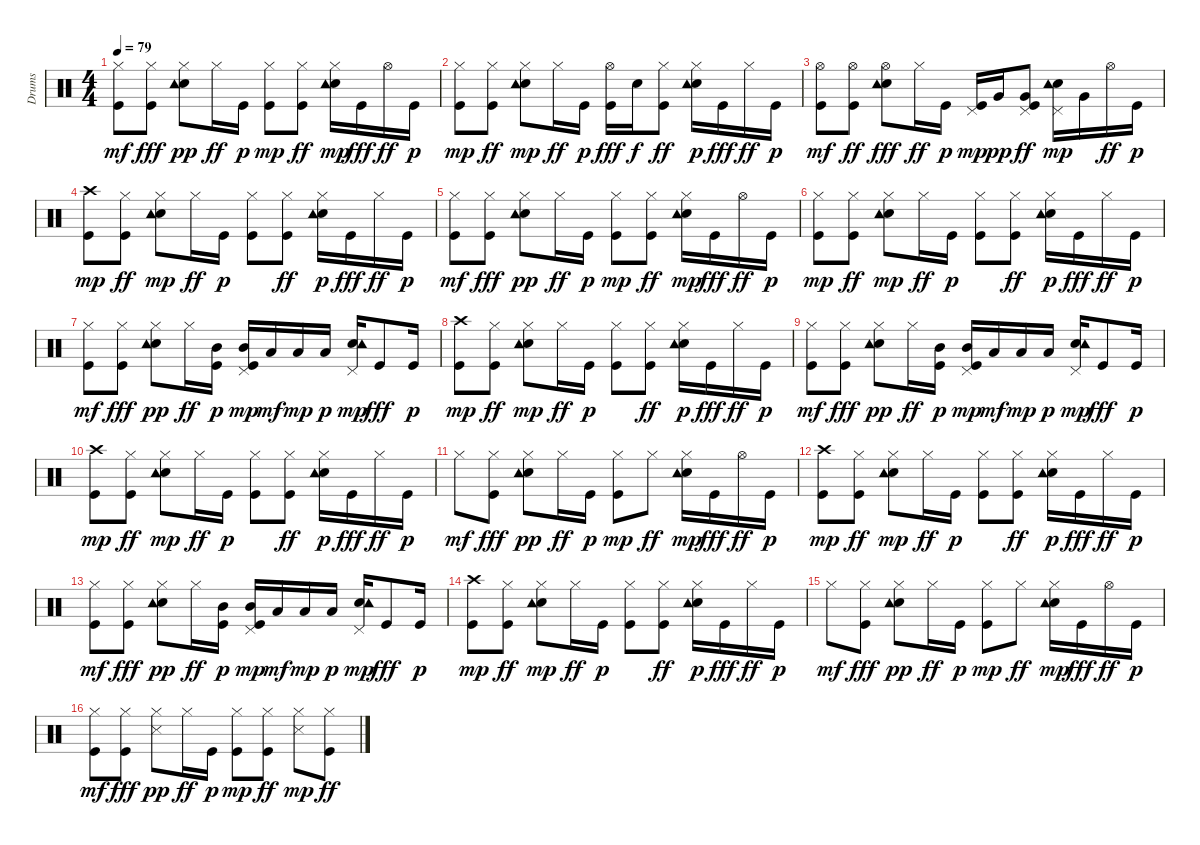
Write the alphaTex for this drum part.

\track ("Drums" "Drums") {instrument percussion}
\staff {score}
\articulation defaults
\ts (4 4)
\tempo 79
\clef neutral
\ks c
("Kick (hit)" "Hi-Hat (closed)").8{dy mf} ("Kick (hit)" "Hi-Hat (closed)").8{dy fff} ("Electric Snare (hit)" "Hi-Hat (closed)" "Tambourine (hit)").8{dy pp} "Hi-Hat (closed)".16{dy ff} "Kick (hit)".16{dy p} ("Kick (hit)" "Hi-Hat (closed)").8{dy mp} ("Kick (hit)" "Hi-Hat (closed)").8{dy ff} ("Electric Snare (hit)" "Hi-Hat (closed)" "Tambourine (hit)").16{dy mp} "Kick (hit)".16{dy fff} "Hi-Hat (open)".16{dy ff} "Kick (hit)".16{dy p} |
("Kick (hit)" "Hi-Hat (closed)").8{dy mp} ("Kick (hit)" "Hi-Hat (closed)").8{dy ff} ("Electric Snare (hit)" "Hi-Hat (closed)" "Tambourine (hit)").8{dy mp} "Hi-Hat (closed)".16{dy ff} "Kick (hit)".16{dy p} ("Kick (hit)" "Hi-Hat (open)").16{dy fff} "Electric Snare (hit)".16{dy f} ("Kick (hit)" "Hi-Hat (closed)").8{dy ff} ("Electric Snare (hit)" "Hi-Hat (closed)" "Tambourine (hit)").16{dy p} "Kick (hit)".16{dy fff} "Hi-Hat (closed)".16{dy ff} "Kick (hit)".16{dy p} |
("Kick (hit)" "Hi-Hat (open)").8{dy mf} ("Kick (hit)" "Hi-Hat (open)").8{dy ff} ("Electric Snare (hit)" "Hi-Hat (open)" "Tambourine (hit)").8{dy fff} "Hi-Hat (closed)".16{dy ff} "Kick (hit)".16{dy p} ("Kick (hit)" "Pedal Hi-Hat (hit)").16{dy mp} "Very Low Tom (hit)".16{dy pp} ("Kick (hit)" "Very Low Tom (hit)" "Pedal Hi-Hat (hit)").8{dy ff} ("Electric Snare (hit)" "Pedal Hi-Hat (hit)" "Tambourine (hit)").16{dy mp} "Very Low Tom (hit)".16 "Hi-Hat (open)".16{dy ff} "Kick (hit)".16{dy p} |
("Kick (hit)" "Crash high (hit)").8{dy mp} ("Kick (hit)" "Hi-Hat (closed)").8{dy ff} ("Electric Snare (hit)" "Hi-Hat (closed)" "Tambourine (hit)").8{dy mp} "Hi-Hat (closed)".16{dy ff} "Kick (hit)".16{dy p} ("Kick (hit)" "Hi-Hat (closed)").8 ("Kick (hit)" "Hi-Hat (closed)").8{dy ff} ("Electric Snare (hit)" "Hi-Hat (closed)" "Tambourine (hit)").16{dy p} "Kick (hit)".16{dy fff} "Hi-Hat (closed)".16{dy ff} "Kick (hit)".16{dy p} |
("Kick (hit)" "Hi-Hat (closed)").8{dy mf} ("Kick (hit)" "Hi-Hat (closed)").8{dy fff} ("Electric Snare (hit)" "Hi-Hat (closed)" "Tambourine (hit)").8{dy pp} "Hi-Hat (closed)".16{dy ff} "Kick (hit)".16{dy p} ("Kick (hit)" "Hi-Hat (closed)").8{dy mp} ("Kick (hit)" "Hi-Hat (closed)").8{dy ff} ("Electric Snare (hit)" "Hi-Hat (closed)" "Tambourine (hit)").16{dy mp} "Kick (hit)".16{dy fff} "Hi-Hat (open)".16{dy ff} "Kick (hit)".16{dy p} |
("Kick (hit)" "Hi-Hat (closed)").8{dy mp} ("Kick (hit)" "Hi-Hat (closed)").8{dy ff} ("Electric Snare (hit)" "Hi-Hat (closed)" "Tambourine (hit)").8{dy mp} "Hi-Hat (closed)".16{dy ff} "Kick (hit)".16{dy p} ("Kick (hit)" "Hi-Hat (closed)").8 ("Kick (hit)" "Hi-Hat (closed)").8{dy ff} ("Electric Snare (hit)" "Hi-Hat (closed)" "Tambourine (hit)").16{dy p} "Kick (hit)".16{dy fff} "Hi-Hat (closed)".16{dy ff} "Kick (hit)".16{dy p} |
("Kick (hit)" "Hi-Hat (closed)").8{dy mf} ("Kick (hit)" "Hi-Hat (closed)").8{dy fff} ("Electric Snare (hit)" "Hi-Hat (closed)" "Tambourine (hit)").8{dy pp} "Hi-Hat (closed)".16{dy ff} ("Kick (hit)" "Mid Tom (hit)").16{dy p} ("Kick (hit)" "Pedal Hi-Hat (hit)" "Mid Tom (hit)").16{dy mp} "Low Tom (hit)".16{dy mf} "Low Tom (hit)".16{dy mp} "Low Tom (hit)".16{dy p} ("Electric Snare (hit)" "Pedal Hi-Hat (hit)" "Tambourine (hit)").16{dy mp} "Kick (hit)".8{dy fff} "Kick (hit)".16{dy p} |
("Kick (hit)" "Crash high (hit)").8{dy mp} ("Kick (hit)" "Hi-Hat (closed)").8{dy ff} ("Electric Snare (hit)" "Hi-Hat (closed)" "Tambourine (hit)").8{dy mp} "Hi-Hat (closed)".16{dy ff} "Kick (hit)".16{dy p} ("Kick (hit)" "Hi-Hat (closed)").8 ("Kick (hit)" "Hi-Hat (closed)").8{dy ff} ("Electric Snare (hit)" "Hi-Hat (closed)" "Tambourine (hit)").16{dy p} "Kick (hit)".16{dy fff} "Hi-Hat (closed)".16{dy ff} "Kick (hit)".16{dy p} |
("Kick (hit)" "Hi-Hat (closed)").8{dy mf} ("Kick (hit)" "Hi-Hat (closed)").8{dy fff} ("Electric Snare (hit)" "Hi-Hat (closed)" "Tambourine (hit)").8{dy pp} "Hi-Hat (closed)".16{dy ff} ("Kick (hit)" "Mid Tom (hit)").16{dy p} ("Kick (hit)" "Pedal Hi-Hat (hit)" "Mid Tom (hit)").16{dy mp} "Low Tom (hit)".16{dy mf} "Low Tom (hit)".16{dy mp} "Low Tom (hit)".16{dy p} ("Electric Snare (hit)" "Pedal Hi-Hat (hit)" "Tambourine (hit)").16{dy mp} "Kick (hit)".8{dy fff} "Kick (hit)".16{dy p} |
("Kick (hit)" "Crash high (hit)").8{dy mp} ("Kick (hit)" "Hi-Hat (closed)").8{dy ff} ("Electric Snare (hit)" "Hi-Hat (closed)" "Tambourine (hit)").8{dy mp} "Hi-Hat (closed)".16{dy ff} "Kick (hit)".16{dy p} ("Kick (hit)" "Hi-Hat (closed)").8 ("Kick (hit)" "Hi-Hat (closed)").8{dy ff} ("Electric Snare (hit)" "Hi-Hat (closed)" "Tambourine (hit)").16{dy p} "Kick (hit)".16{dy fff} "Hi-Hat (closed)".16{dy ff} "Kick (hit)".16{dy p} |
"Hi-Hat (closed)".8{dy mf} ("Kick (hit)" "Hi-Hat (closed)").8{dy fff} ("Electric Snare (hit)" "Hi-Hat (closed)" "Tambourine (hit)").8{dy pp} "Hi-Hat (closed)".16{dy ff} "Kick (hit)".16{dy p} ("Kick (hit)" "Hi-Hat (closed)").8{dy mp} "Hi-Hat (closed)".8{dy ff} ("Electric Snare (hit)" "Hi-Hat (closed)" "Tambourine (hit)").16{dy mp} "Kick (hit)".16{dy fff} "Hi-Hat (open)".16{dy ff} "Kick (hit)".16{dy p} |
("Kick (hit)" "Crash high (hit)").8{dy mp} ("Kick (hit)" "Hi-Hat (closed)").8{dy ff} ("Electric Snare (hit)" "Hi-Hat (closed)" "Tambourine (hit)").8{dy mp} "Hi-Hat (closed)".16{dy ff} "Kick (hit)".16{dy p} ("Kick (hit)" "Hi-Hat (closed)").8 ("Kick (hit)" "Hi-Hat (closed)").8{dy ff} ("Electric Snare (hit)" "Hi-Hat (closed)" "Tambourine (hit)").16{dy p} "Kick (hit)".16{dy fff} "Hi-Hat (closed)".16{dy ff} "Kick (hit)".16{dy p} |
("Kick (hit)" "Hi-Hat (closed)").8{dy mf} ("Kick (hit)" "Hi-Hat (closed)").8{dy fff} ("Electric Snare (hit)" "Hi-Hat (closed)" "Tambourine (hit)").8{dy pp} "Hi-Hat (closed)".16{dy ff} ("Kick (hit)" "Mid Tom (hit)").16{dy p} ("Kick (hit)" "Pedal Hi-Hat (hit)" "Mid Tom (hit)").16{dy mp} "Low Tom (hit)".16{dy mf} "Low Tom (hit)".16{dy mp} "Low Tom (hit)".16{dy p} ("Electric Snare (hit)" "Pedal Hi-Hat (hit)" "Tambourine (hit)").16{dy mp} "Kick (hit)".8{dy fff} "Kick (hit)".16{dy p} |
("Kick (hit)" "Crash high (hit)").8{dy mp} ("Kick (hit)" "Hi-Hat (closed)").8{dy ff} ("Electric Snare (hit)" "Hi-Hat (closed)" "Tambourine (hit)").8{dy mp} "Hi-Hat (closed)".16{dy ff} "Kick (hit)".16{dy p} ("Kick (hit)" "Hi-Hat (closed)").8 ("Kick (hit)" "Hi-Hat (closed)").8{dy ff} ("Electric Snare (hit)" "Hi-Hat (closed)" "Tambourine (hit)").16{dy p} "Kick (hit)".16{dy fff} "Hi-Hat (closed)".16{dy ff} "Kick (hit)".16{dy p} |
"Hi-Hat (closed)".8{dy mf} ("Kick (hit)" "Hi-Hat (closed)").8{dy fff} ("Electric Snare (hit)" "Hi-Hat (closed)" "Tambourine (hit)").8{dy pp} "Hi-Hat (closed)".16{dy ff} "Kick (hit)".16{dy p} ("Kick (hit)" "Hi-Hat (closed)").8{dy mp} "Hi-Hat (closed)".8{dy ff} ("Electric Snare (hit)" "Hi-Hat (closed)" "Tambourine (hit)").16{dy mp} "Kick (hit)".16{dy fff} "Hi-Hat (open)".16{dy ff} "Kick (hit)".16{dy p} |
("Kick (hit)" "Hi-Hat (closed)").8{dy mf} ("Kick (hit)" "Hi-Hat (closed)").8{dy fff} ("Snare (side stick) 3" "Hi-Hat (closed)").8{dy pp} "Hi-Hat (closed)".16{dy ff} "Kick (hit)".16{dy p} ("Kick (hit)" "Hi-Hat (closed)").8{dy mp} ("Kick (hit)" "Hi-Hat (closed)").8{dy ff} ("Snare (side stick) 3" "Hi-Hat (closed)").8{dy mp} ("Kick (hit)" "Hi-Hat (closed)").8{dy ff}
